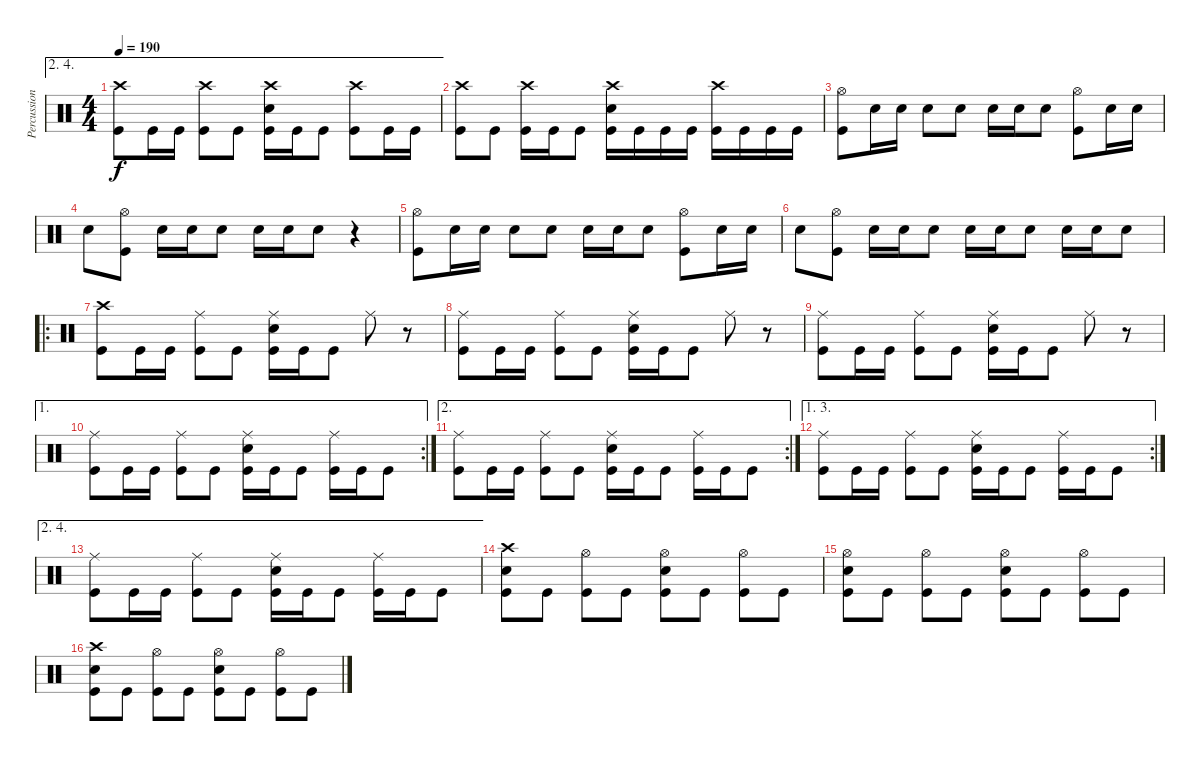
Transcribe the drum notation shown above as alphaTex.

\track ("Percussion" "Percussion") {instrument percussion}
\staff {score}
\articulation defaults
\ae (2 4)
\ts (4 4)
\tempo 190
\clef neutral
\ks c
("Crash high (hit)" "Kick (hit)").8{dy f} "Kick (hit)".16 "Kick (hit)".16 ("Crash high (hit)" "Kick (hit)").8 "Kick (hit)".8 ("Crash high (hit)" "Electric Snare (hit)" "Kick (hit)").16 "Kick (hit)".16 "Kick (hit)".8 ("Crash high (hit)" "Kick (hit)").8 "Kick (hit)".16 "Kick (hit)".16 |
("Crash high (hit)" "Kick (hit)").8 "Kick (hit)".8 ("Crash high (hit)" "Kick (hit)").16 "Kick (hit)".16 "Kick (hit)".8 ("Crash high (hit)" "Electric Snare (hit)" "Kick (hit)").16 "Kick (hit)".16 "Kick (hit)".16 "Kick (hit)".16 ("Crash high (hit)" "Kick (hit)").16 "Kick (hit)".16 "Kick (hit)".16 "Kick (hit)".16 |
("Hi-Hat (open)" "Kick (hit)").8 "Electric Snare (hit)".16 "Electric Snare (hit)".16 "Electric Snare (hit)".8 "Electric Snare (hit)".8 "Electric Snare (hit)".16 "Electric Snare (hit)".16 "Electric Snare (hit)".8 ("Hi-Hat (open)" "Kick (hit)").8 "Electric Snare (hit)".16 "Electric Snare (hit)".16 |
"Electric Snare (hit)".8 ("Hi-Hat (open)" "Kick (hit)").8 "Electric Snare (hit)".16 "Electric Snare (hit)".16 "Electric Snare (hit)".8 "Electric Snare (hit)".16 "Electric Snare (hit)".16 "Electric Snare (hit)".8 r.4 |
("Hi-Hat (open)" "Kick (hit)").8 "Electric Snare (hit)".16 "Electric Snare (hit)".16 "Electric Snare (hit)".8 "Electric Snare (hit)".8 "Electric Snare (hit)".16 "Electric Snare (hit)".16 "Electric Snare (hit)".8 ("Hi-Hat (open)" "Kick (hit)").8 "Electric Snare (hit)".16 "Electric Snare (hit)".16 |
"Electric Snare (hit)".8 ("Hi-Hat (open)" "Kick (hit)").8 "Electric Snare (hit)".16 "Electric Snare (hit)".16 "Electric Snare (hit)".8 "Electric Snare (hit)".16 "Electric Snare (hit)".16 "Electric Snare (hit)".8 "Electric Snare (hit)".16 "Electric Snare (hit)".16 "Electric Snare (hit)".8 |
\ro
("Crash high (hit)" "Kick (hit)").8 "Kick (hit)".16 "Kick (hit)".16 ("Ride (middle)" "Kick (hit)").8 "Kick (hit)".8 ("Ride (middle)" "Electric Snare (hit)" "Kick (hit)").16 "Kick (hit)".16 "Kick (hit)".8 "Ride (middle)".8 r.8 |
("Ride (middle)" "Kick (hit)").8 "Kick (hit)".16 "Kick (hit)".16 ("Ride (middle)" "Kick (hit)").8 "Kick (hit)".8 ("Ride (middle)" "Electric Snare (hit)" "Kick (hit)").16 "Kick (hit)".16 "Kick (hit)".8 "Ride (middle)".8 r.8 |
("Ride (middle)" "Kick (hit)").8 "Kick (hit)".16 "Kick (hit)".16 ("Ride (middle)" "Kick (hit)").8 "Kick (hit)".8 ("Ride (middle)" "Electric Snare (hit)" "Kick (hit)").16 "Kick (hit)".16 "Kick (hit)".8 "Ride (middle)".8 r.8 |
\ae 1
\rc 2
("Ride (middle)" "Kick (hit)").8 "Kick (hit)".16 "Kick (hit)".16 ("Ride (middle)" "Kick (hit)").8 "Kick (hit)".8 ("Ride (middle)" "Electric Snare (hit)" "Kick (hit)").16 "Kick (hit)".16 "Kick (hit)".8 ("Ride (middle)" "Kick (hit)").16 "Kick (hit)".16 "Kick (hit)".8 |
\ae 2
\rc 2
("Ride (middle)" "Kick (hit)").8 "Kick (hit)".16 "Kick (hit)".16 ("Ride (middle)" "Kick (hit)").8 "Kick (hit)".8 ("Ride (middle)" "Electric Snare (hit)" "Kick (hit)").16 "Kick (hit)".16 "Kick (hit)".8 ("Ride (middle)" "Kick (hit)").16 "Kick (hit)".16 "Kick (hit)".8 |
\ae (1 3)
\rc 2
("Ride (middle)" "Kick (hit)").8 "Kick (hit)".16 "Kick (hit)".16 ("Ride (middle)" "Kick (hit)").8 "Kick (hit)".8 ("Ride (middle)" "Electric Snare (hit)" "Kick (hit)").16 "Kick (hit)".16 "Kick (hit)".8 ("Ride (middle)" "Kick (hit)").16 "Kick (hit)".16 "Kick (hit)".8 |
\ae (2 4)
("Ride (middle)" "Kick (hit)").8 "Kick (hit)".16 "Kick (hit)".16 ("Ride (middle)" "Kick (hit)").8 "Kick (hit)".8 ("Ride (middle)" "Electric Snare (hit)" "Kick (hit)").16 "Kick (hit)".16 "Kick (hit)".8 ("Ride (middle)" "Kick (hit)").16 "Kick (hit)".16 "Kick (hit)".8 |
("Crash high (hit)" "Electric Snare (hit)" "Kick (hit)").8 "Kick (hit)".8 ("Hi-Hat (open)" "Kick (hit)").8 "Kick (hit)".8 ("Hi-Hat (open)" "Electric Snare (hit)" "Kick (hit)").8 "Kick (hit)".8 ("Hi-Hat (open)" "Kick (hit)").8 "Kick (hit)".8 |
("Hi-Hat (open)" "Electric Snare (hit)" "Kick (hit)").8 "Kick (hit)".8 ("Hi-Hat (open)" "Kick (hit)").8 "Kick (hit)".8 ("Hi-Hat (open)" "Electric Snare (hit)" "Kick (hit)").8 "Kick (hit)".8 ("Hi-Hat (open)" "Kick (hit)").8 "Kick (hit)".8 |
("Crash high (hit)" "Electric Snare (hit)" "Kick (hit)").8 "Kick (hit)".8 ("Hi-Hat (open)" "Kick (hit)").8 "Kick (hit)".8 ("Hi-Hat (open)" "Electric Snare (hit)" "Kick (hit)").8 "Kick (hit)".8 ("Hi-Hat (open)" "Kick (hit)").8 "Kick (hit)".8
